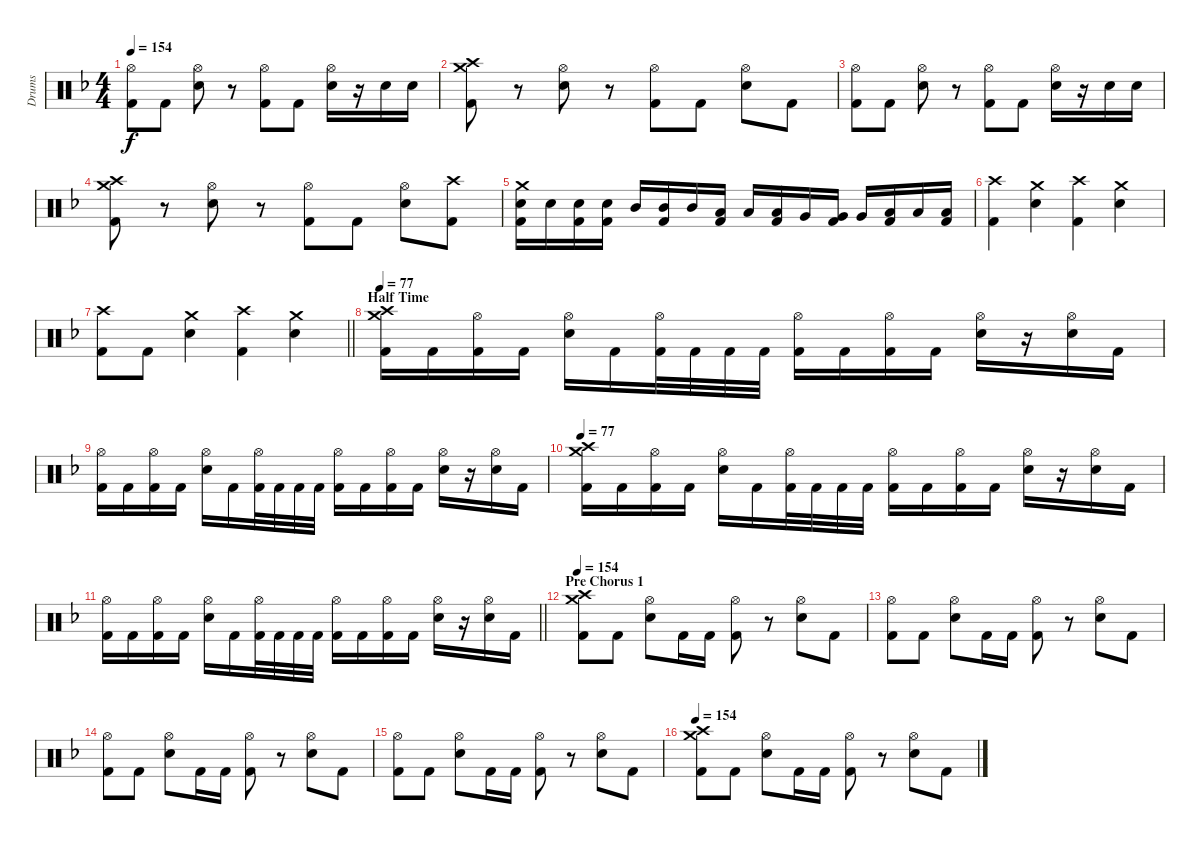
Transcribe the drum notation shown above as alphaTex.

\track ("Drums" "Drums") {instrument percussion}
\staff {score}
\articulation defaults
\ts (4 4)
\tempo 154
\clef neutral
\ks f
("Hi-Hat (open)" "Kick (hit) 2").8{dy f} "Kick (hit) 2".8 ("Hi-Hat (open)" "Electric Snare (hit)").8 r.8 ("Hi-Hat (open)" "Kick (hit) 2").8 "Kick (hit) 2".8 ("Hi-Hat (open)" "Electric Snare (hit)").16 r.16 "Electric Snare (hit)".16 "Electric Snare (hit)".16 |
("Crash high (hit)" "Crash medium (hit)" "Kick (hit) 2").8 r.8 ("Hi-Hat (open)" "Electric Snare (hit)").8 r.8 ("Hi-Hat (open)" "Kick (hit) 2").8 "Kick (hit) 2".8 ("Hi-Hat (open)" "Electric Snare (hit)").8 "Kick (hit) 2".8 |
("Hi-Hat (open)" "Kick (hit) 2").8 "Kick (hit) 2".8 ("Hi-Hat (open)" "Electric Snare (hit)").8 r.8 ("Hi-Hat (open)" "Kick (hit) 2").8 "Kick (hit) 2".8 ("Hi-Hat (open)" "Electric Snare (hit)").16 r.16 "Electric Snare (hit)".16 "Electric Snare (hit)".16 |
("Crash high (hit)" "Crash medium (hit)" "Kick (hit) 2").8 r.8 ("Hi-Hat (open)" "Electric Snare (hit)").8 r.8 ("Hi-Hat (open)" "Kick (hit) 2").8 "Kick (hit) 2".8 ("Hi-Hat (open)" "Electric Snare (hit)").8 ("Crash high (hit)" "Kick (hit) 2").8 |
("Crash medium (hit)" "Electric Snare (hit)" "Kick (hit) 2").16 "Electric Snare (hit)".16 ("Electric Snare (hit)" "Kick (hit) 2").16 ("Electric Snare (hit)" "Kick (hit) 2").16 "Mid Tom (hit)".16 ("Mid Tom (hit)" "Kick (hit) 2").16 "Mid Tom (hit)".16 ("Low Tom (hit)" "Kick (hit) 2").16 "Low Tom (hit)".16 ("Low Tom (hit)" "Kick (hit) 2").16 "Very Low Tom (hit)".16 ("Very Low Tom (hit)" "Kick (hit) 2").16 "Very Low Tom (hit)".16 ("Low Floor Tom (hit)" "Kick (hit) 2").16 "Low Floor Tom (hit)".16 ("Low Floor Tom (hit)" "Kick (hit) 2").16 |
("Crash high (hit)" "Kick (hit) 2").4 ("Crash medium (hit)" "Electric Snare (hit)").4 ("Crash high (hit)" "Kick (hit) 2").4 ("Crash medium (hit)" "Electric Snare (hit)").4 |
\barLineRight lightlight
("Crash high (hit)" "Kick (hit) 2").8 "Kick (hit) 2".8 ("Crash medium (hit)" "Electric Snare (hit)").4 ("Crash high (hit)" "Kick (hit) 2").4 ("Crash medium (hit)" "Electric Snare (hit)").4 |
\section ("" "Half Time")
\tempo 77
("Crash high (hit)" "Crash medium (hit)" "Kick (hit) 2").16 "Kick (hit) 2".16 ("Hi-Hat (open)" "Kick (hit) 2").16 "Kick (hit) 2".16 ("Hi-Hat (open)" "Electric Snare (hit)").16 "Kick (hit) 2".16 ("Hi-Hat (open)" "Kick (hit) 2").32 "Kick (hit) 2".32 "Kick (hit) 2".32 "Kick (hit) 2".32 ("Hi-Hat (open)" "Kick (hit) 2").16 "Kick (hit) 2".16 ("Hi-Hat (open)" "Kick (hit) 2").16 "Kick (hit) 2".16 ("Hi-Hat (open)" "Electric Snare (hit)").16 r.16 ("Hi-Hat (open)" "Electric Snare (hit)").16 "Kick (hit) 2".16 |
("Hi-Hat (open)" "Kick (hit) 2").16 "Kick (hit) 2".16 ("Hi-Hat (open)" "Kick (hit) 2").16 "Kick (hit) 2".16 ("Hi-Hat (open)" "Electric Snare (hit)").16 "Kick (hit) 2".16 ("Hi-Hat (open)" "Kick (hit) 2").32 "Kick (hit) 2".32 "Kick (hit) 2".32 "Kick (hit) 2".32 ("Hi-Hat (open)" "Kick (hit) 2").16 "Kick (hit) 2".16 ("Hi-Hat (open)" "Kick (hit) 2").16 "Kick (hit) 2".16 ("Hi-Hat (open)" "Electric Snare (hit)").16 r.16 ("Hi-Hat (open)" "Electric Snare (hit)").16 "Kick (hit) 2".16 |
\tempo 77
("Crash high (hit)" "Crash medium (hit)" "Kick (hit) 2").16 "Kick (hit) 2".16 ("Hi-Hat (open)" "Kick (hit) 2").16 "Kick (hit) 2".16 ("Hi-Hat (open)" "Electric Snare (hit)").16 "Kick (hit) 2".16 ("Hi-Hat (open)" "Kick (hit) 2").32 "Kick (hit) 2".32 "Kick (hit) 2".32 "Kick (hit) 2".32 ("Hi-Hat (open)" "Kick (hit) 2").16 "Kick (hit) 2".16 ("Hi-Hat (open)" "Kick (hit) 2").16 "Kick (hit) 2".16 ("Hi-Hat (open)" "Electric Snare (hit)").16 r.16 ("Hi-Hat (open)" "Electric Snare (hit)").16 "Kick (hit) 2".16 |
\barLineRight lightlight
("Hi-Hat (open)" "Kick (hit) 2").16 "Kick (hit) 2".16 ("Hi-Hat (open)" "Kick (hit) 2").16 "Kick (hit) 2".16 ("Hi-Hat (open)" "Electric Snare (hit)").16 "Kick (hit) 2".16 ("Hi-Hat (open)" "Kick (hit) 2").32 "Kick (hit) 2".32 "Kick (hit) 2".32 "Kick (hit) 2".32 ("Hi-Hat (open)" "Kick (hit) 2").16 "Kick (hit) 2".16 ("Hi-Hat (open)" "Kick (hit) 2").16 "Kick (hit) 2".16 ("Hi-Hat (open)" "Electric Snare (hit)").16 r.16 ("Hi-Hat (open)" "Electric Snare (hit)").16 "Kick (hit) 2".16 |
\section ("" "Pre Chorus 1")
\tempo 154
("Crash high (hit)" "Crash medium (hit)" "Kick (hit) 2").8 "Kick (hit) 2".8 ("Hi-Hat (open)" "Electric Snare (hit)").8 "Kick (hit) 2".16 "Kick (hit) 2".16 ("Hi-Hat (open)" "Kick (hit) 2").8 r.8 ("Hi-Hat (open)" "Electric Snare (hit)").8 "Kick (hit) 2".8 |
("Hi-Hat (open)" "Kick (hit) 2").8 "Kick (hit) 2".8 ("Hi-Hat (open)" "Electric Snare (hit)").8 "Kick (hit) 2".16 "Kick (hit) 2".16 ("Hi-Hat (open)" "Kick (hit) 2").8 r.8 ("Hi-Hat (open)" "Electric Snare (hit)").8 "Kick (hit) 2".8 |
("Hi-Hat (open)" "Kick (hit) 2").8 "Kick (hit) 2".8 ("Hi-Hat (open)" "Electric Snare (hit)").8 "Kick (hit) 2".16 "Kick (hit) 2".16 ("Hi-Hat (open)" "Kick (hit) 2").8 r.8 ("Hi-Hat (open)" "Electric Snare (hit)").8 "Kick (hit) 2".8 |
("Hi-Hat (open)" "Kick (hit) 2").8 "Kick (hit) 2".8 ("Hi-Hat (open)" "Electric Snare (hit)").8 "Kick (hit) 2".16 "Kick (hit) 2".16 ("Hi-Hat (open)" "Kick (hit) 2").8 r.8 ("Hi-Hat (open)" "Electric Snare (hit)").8 "Kick (hit) 2".8 |
\tempo 154
("Crash high (hit)" "Crash medium (hit)" "Kick (hit) 2").8 "Kick (hit) 2".8 ("Hi-Hat (open)" "Electric Snare (hit)").8 "Kick (hit) 2".16 "Kick (hit) 2".16 ("Hi-Hat (open)" "Kick (hit) 2").8 r.8 ("Hi-Hat (open)" "Electric Snare (hit)").8 "Kick (hit) 2".8
